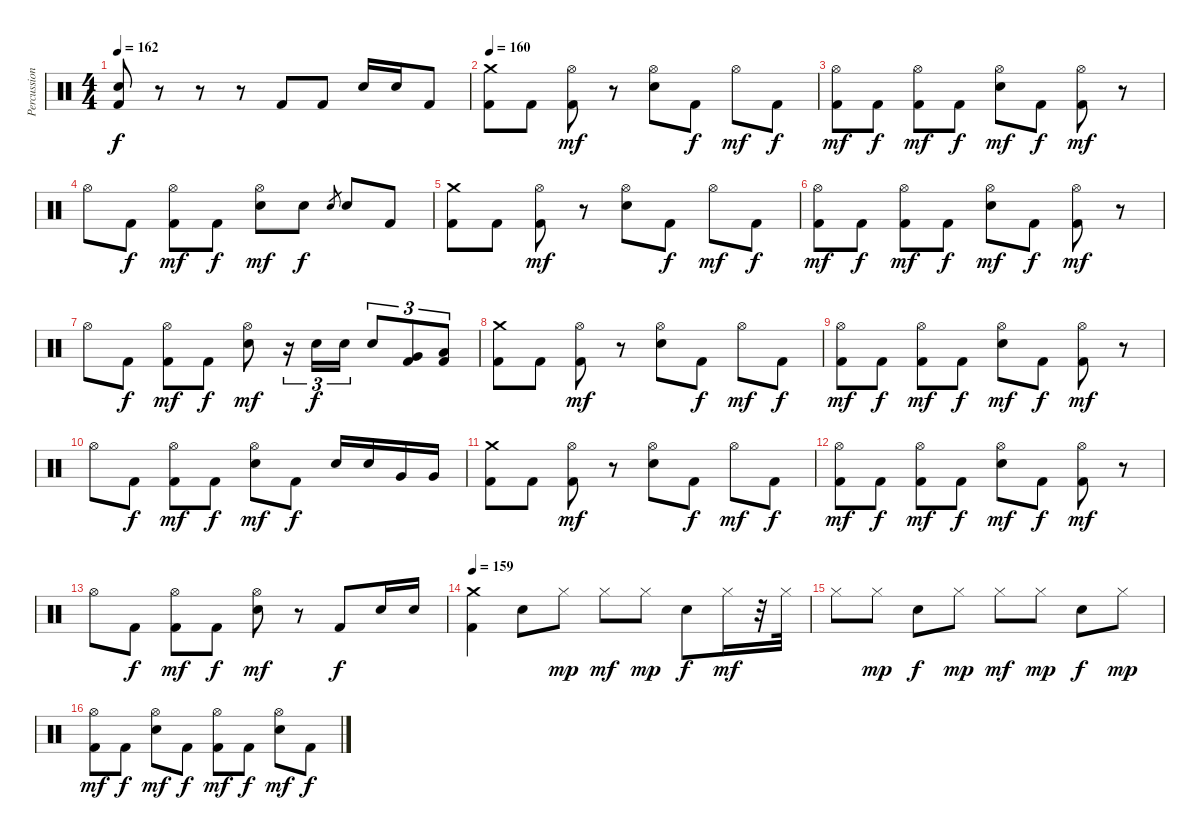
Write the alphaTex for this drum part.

\track ("Percussion" "Percussion") {instrument percussion}
\staff {score}
\articulation defaults
\ts (4 4)
\tempo 162
\clef neutral
\ks c
("Kick (hit) 2" "Electric Snare (hit)").8{dy f} r.8 r.8 r.8 "Kick (hit) 2".8 "Kick (hit) 2".8 "Electric Snare (hit)".16 "Electric Snare (hit)".16 "Kick (hit) 2".8 |
\tempo 160
("Crash medium (hit)" "Kick (hit) 2").8 "Kick (hit) 2".8 ("Hi-Hat (open)" "Kick (hit) 2").8{dy mf} r.8 ("Hi-Hat (open)" "Electric Snare (hit)").8 "Kick (hit) 2".8{dy f} "Hi-Hat (open)".8{dy mf} "Kick (hit) 2".8{dy f} |
("Hi-Hat (open)" "Kick (hit) 2").8{dy mf} "Kick (hit) 2".8{dy f} ("Hi-Hat (open)" "Kick (hit) 2").8{dy mf} "Kick (hit) 2".8{dy f} ("Hi-Hat (open)" "Electric Snare (hit)").8{dy mf} "Kick (hit) 2".8{dy f} ("Hi-Hat (open)" "Kick (hit) 2").8{dy mf} r.8 |
"Hi-Hat (open)".8 "Kick (hit) 2".8{dy f} ("Hi-Hat (open)" "Kick (hit) 2").8{dy mf} "Kick (hit) 2".8{dy f} ("Hi-Hat (open)" "Electric Snare (hit)").8{dy mf} "Electric Snare (hit)".8{dy f} "Electric Snare (hit)".8{gr} "Electric Snare (hit)".8 "Kick (hit) 2".8 |
("Crash medium (hit)" "Kick (hit) 2").8 "Kick (hit) 2".8 ("Hi-Hat (open)" "Kick (hit) 2").8{dy mf} r.8 ("Hi-Hat (open)" "Electric Snare (hit)").8 "Kick (hit) 2".8{dy f} "Hi-Hat (open)".8{dy mf} "Kick (hit) 2".8{dy f} |
("Hi-Hat (open)" "Kick (hit) 2").8{dy mf} "Kick (hit) 2".8{dy f} ("Hi-Hat (open)" "Kick (hit) 2").8{dy mf} "Kick (hit) 2".8{dy f} ("Hi-Hat (open)" "Electric Snare (hit)").8{dy mf} "Kick (hit) 2".8{dy f} ("Hi-Hat (open)" "Kick (hit) 2").8{dy mf} r.8 |
"Hi-Hat (open)".8 "Kick (hit) 2".8{dy f} ("Hi-Hat (open)" "Kick (hit) 2").8{dy mf} "Kick (hit) 2".8{dy f} ("Hi-Hat (open)" "Electric Snare (hit)").8{dy mf} r.16{tu (3 2)} "Electric Snare (hit)".16{tu (3 2) dy f} "Electric Snare (hit)".16{tu (3 2)} "Electric Snare (hit)".8{tu (3 2)} ("Kick (hit) 2" "Very Low Tom (hit)").8{tu (3 2)} ("Kick (hit) 2" "Low Floor Tom (hit)").8{tu (3 2)} |
("Crash medium (hit)" "Kick (hit) 2").8 "Kick (hit) 2".8 ("Hi-Hat (open)" "Kick (hit) 2").8{dy mf} r.8 ("Hi-Hat (open)" "Electric Snare (hit)").8 "Kick (hit) 2".8{dy f} "Hi-Hat (open)".8{dy mf} "Kick (hit) 2".8{dy f} |
("Hi-Hat (open)" "Kick (hit) 2").8{dy mf} "Kick (hit) 2".8{dy f} ("Hi-Hat (open)" "Kick (hit) 2").8{dy mf} "Kick (hit) 2".8{dy f} ("Hi-Hat (open)" "Electric Snare (hit)").8{dy mf} "Kick (hit) 2".8{dy f} ("Hi-Hat (open)" "Kick (hit) 2").8{dy mf} r.8 |
"Hi-Hat (open)".8 "Kick (hit) 2".8{dy f} ("Hi-Hat (open)" "Kick (hit) 2").8{dy mf} "Kick (hit) 2".8{dy f} ("Hi-Hat (open)" "Electric Snare (hit)").8{dy mf} "Kick (hit) 2".8{dy f} "Electric Snare (hit)".16 "Electric Snare (hit)".16 "Very Low Tom (hit)".16 "Very Low Tom (hit)".16 |
("Crash medium (hit)" "Kick (hit) 2").8 "Kick (hit) 2".8 ("Hi-Hat (open)" "Kick (hit) 2").8{dy mf} r.8 ("Hi-Hat (open)" "Electric Snare (hit)").8 "Kick (hit) 2".8{dy f} "Hi-Hat (open)".8{dy mf} "Kick (hit) 2".8{dy f} |
("Hi-Hat (open)" "Kick (hit) 2").8{dy mf} "Kick (hit) 2".8{dy f} ("Hi-Hat (open)" "Kick (hit) 2").8{dy mf} "Kick (hit) 2".8{dy f} ("Hi-Hat (open)" "Electric Snare (hit)").8{dy mf} "Kick (hit) 2".8{dy f} ("Hi-Hat (open)" "Kick (hit) 2").8{dy mf} r.8 |
"Hi-Hat (open)".8 "Kick (hit) 2".8{dy f} ("Hi-Hat (open)" "Kick (hit) 2").8{dy mf} "Kick (hit) 2".8{dy f} ("Hi-Hat (open)" "Electric Snare (hit)").8{dy mf} r.8 "Kick (hit) 2".8{dy f} "Electric Snare (hit)".16 "Electric Snare (hit)".16 |
\tempo 159
("Crash medium (hit)" "Kick (hit) 2").4 "Electric Snare (hit)".8 "Hi-Hat (closed)".8{dy mp} "Hi-Hat (closed)".8{dy mf} "Hi-Hat (closed)".8{dy mp} "Electric Snare (hit)".8{dy f} "Hi-Hat (closed)".16{dy mf} r.32 "Hi-Hat (closed)".32 |
"Hi-Hat (closed)".8 "Hi-Hat (closed)".8{dy mp} "Electric Snare (hit)".8{dy f} "Hi-Hat (closed)".8{dy mp} "Hi-Hat (closed)".8{dy mf} "Hi-Hat (closed)".8{dy mp} "Electric Snare (hit)".8{dy f} "Hi-Hat (closed)".8{dy mp} |
("Hi-Hat (open)" "Kick (hit) 2").8{dy mf} "Kick (hit) 2".8{dy f} ("Hi-Hat (open)" "Electric Snare (hit)").8{dy mf} "Kick (hit) 2".8{dy f} ("Hi-Hat (open)" "Kick (hit) 2").8{dy mf} "Kick (hit) 2".8{dy f} ("Hi-Hat (open)" "Electric Snare (hit)").8{dy mf} "Kick (hit) 2".8{dy f}
